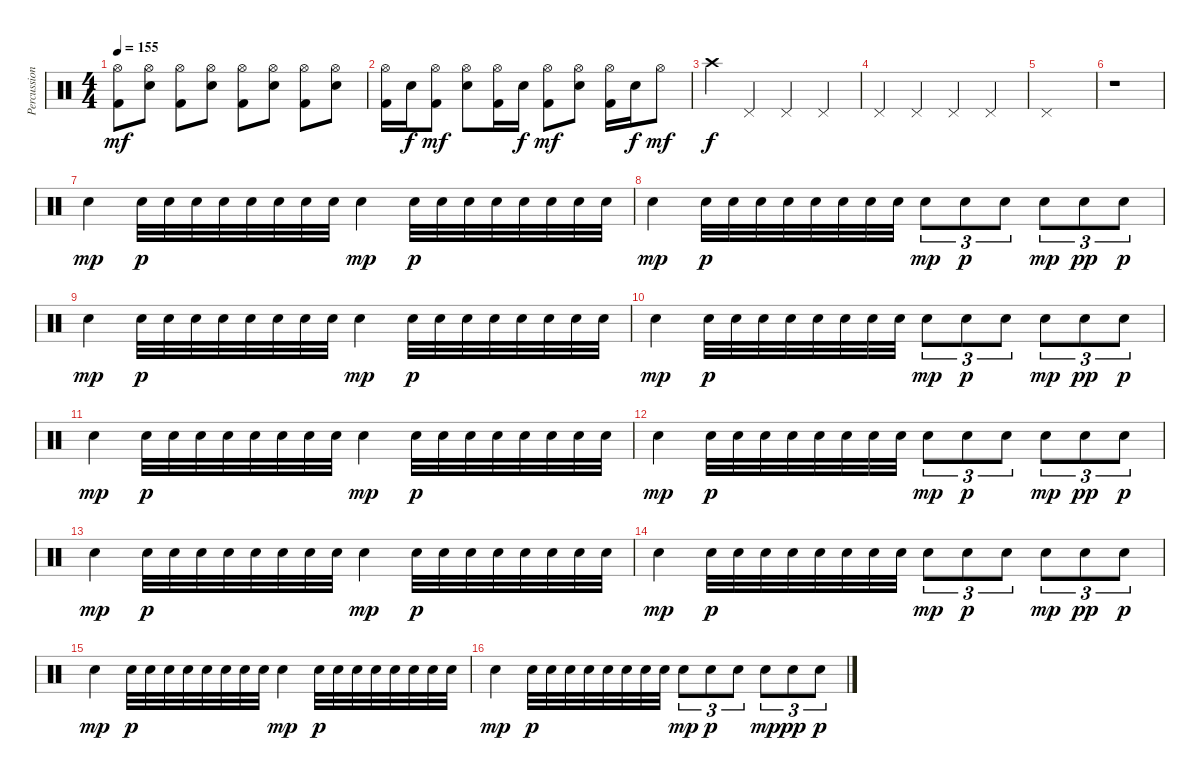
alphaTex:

\track ("Percussion" "Percussion") {instrument percussion}
\staff {score}
\articulation defaults
\ts (4 4)
\tempo 155
\clef neutral
\ks c
("Hi-Hat (open)" "Kick (hit) 2").8{dy mf} ("Hi-Hat (open)" "Electric Snare (hit)").8 ("Hi-Hat (open)" "Kick (hit) 2").8 ("Hi-Hat (open)" "Electric Snare (hit)").8 ("Hi-Hat (open)" "Kick (hit) 2").8 ("Hi-Hat (open)" "Electric Snare (hit)").8 ("Hi-Hat (open)" "Kick (hit) 2").8 ("Hi-Hat (open)" "Electric Snare (hit)").8 |
("Hi-Hat (open)" "Kick (hit) 2").16 "Electric Snare (hit)".16{dy f} ("Hi-Hat (open)" "Kick (hit) 2").8{dy mf} ("Hi-Hat (open)" "Electric Snare (hit)").8 ("Hi-Hat (open)" "Kick (hit) 2").16 "Electric Snare (hit)".16{dy f} ("Hi-Hat (open)" "Kick (hit) 2").8{dy mf} ("Hi-Hat (open)" "Electric Snare (hit)").8 ("Hi-Hat (open)" "Kick (hit) 2").16 "Electric Snare (hit)".16{dy f} "Hi-Hat (open)".8{dy mf} |
"Crash high (hit)".4{dy f} "Pedal Hi-Hat (hit)".4 "Pedal Hi-Hat (hit)".4 "Pedal Hi-Hat (hit)".4 |
"Pedal Hi-Hat (hit)".4 "Pedal Hi-Hat (hit)".4 "Pedal Hi-Hat (hit)".4 "Pedal Hi-Hat (hit)".4 |
"Pedal Hi-Hat (hit)".1 |
r.1 |
"Electric Snare (hit)".4{dy mp} "Electric Snare (hit)".32{dy p} "Electric Snare (hit)".32 "Electric Snare (hit)".32 "Electric Snare (hit)".32 "Electric Snare (hit)".32 "Electric Snare (hit)".32 "Electric Snare (hit)".32 "Electric Snare (hit)".32 "Electric Snare (hit)".4{dy mp} "Electric Snare (hit)".32{dy p} "Electric Snare (hit)".32 "Electric Snare (hit)".32 "Electric Snare (hit)".32 "Electric Snare (hit)".32 "Electric Snare (hit)".32 "Electric Snare (hit)".32 "Electric Snare (hit)".32 |
"Electric Snare (hit)".4{dy mp} "Electric Snare (hit)".32{dy p} "Electric Snare (hit)".32 "Electric Snare (hit)".32 "Electric Snare (hit)".32 "Electric Snare (hit)".32 "Electric Snare (hit)".32 "Electric Snare (hit)".32 "Electric Snare (hit)".32 "Electric Snare (hit)".8{tu (3 2) dy mp} "Electric Snare (hit)".8{tu (3 2) dy p} "Electric Snare (hit)".8{tu (3 2)} "Electric Snare (hit)".8{tu (3 2) dy mp} "Electric Snare (hit)".8{tu (3 2) dy pp} "Electric Snare (hit)".8{tu (3 2) dy p} |
"Electric Snare (hit)".4{dy mp} "Electric Snare (hit)".32{dy p} "Electric Snare (hit)".32 "Electric Snare (hit)".32 "Electric Snare (hit)".32 "Electric Snare (hit)".32 "Electric Snare (hit)".32 "Electric Snare (hit)".32 "Electric Snare (hit)".32 "Electric Snare (hit)".4{dy mp} "Electric Snare (hit)".32{dy p} "Electric Snare (hit)".32 "Electric Snare (hit)".32 "Electric Snare (hit)".32 "Electric Snare (hit)".32 "Electric Snare (hit)".32 "Electric Snare (hit)".32 "Electric Snare (hit)".32 |
"Electric Snare (hit)".4{dy mp} "Electric Snare (hit)".32{dy p} "Electric Snare (hit)".32 "Electric Snare (hit)".32 "Electric Snare (hit)".32 "Electric Snare (hit)".32 "Electric Snare (hit)".32 "Electric Snare (hit)".32 "Electric Snare (hit)".32 "Electric Snare (hit)".8{tu (3 2) dy mp} "Electric Snare (hit)".8{tu (3 2) dy p} "Electric Snare (hit)".8{tu (3 2)} "Electric Snare (hit)".8{tu (3 2) dy mp} "Electric Snare (hit)".8{tu (3 2) dy pp} "Electric Snare (hit)".8{tu (3 2) dy p} |
"Electric Snare (hit)".4{dy mp} "Electric Snare (hit)".32{dy p} "Electric Snare (hit)".32 "Electric Snare (hit)".32 "Electric Snare (hit)".32 "Electric Snare (hit)".32 "Electric Snare (hit)".32 "Electric Snare (hit)".32 "Electric Snare (hit)".32 "Electric Snare (hit)".4{dy mp} "Electric Snare (hit)".32{dy p} "Electric Snare (hit)".32 "Electric Snare (hit)".32 "Electric Snare (hit)".32 "Electric Snare (hit)".32 "Electric Snare (hit)".32 "Electric Snare (hit)".32 "Electric Snare (hit)".32 |
"Electric Snare (hit)".4{dy mp} "Electric Snare (hit)".32{dy p} "Electric Snare (hit)".32 "Electric Snare (hit)".32 "Electric Snare (hit)".32 "Electric Snare (hit)".32 "Electric Snare (hit)".32 "Electric Snare (hit)".32 "Electric Snare (hit)".32 "Electric Snare (hit)".8{tu (3 2) dy mp} "Electric Snare (hit)".8{tu (3 2) dy p} "Electric Snare (hit)".8{tu (3 2)} "Electric Snare (hit)".8{tu (3 2) dy mp} "Electric Snare (hit)".8{tu (3 2) dy pp} "Electric Snare (hit)".8{tu (3 2) dy p} |
"Electric Snare (hit)".4{dy mp} "Electric Snare (hit)".32{dy p} "Electric Snare (hit)".32 "Electric Snare (hit)".32 "Electric Snare (hit)".32 "Electric Snare (hit)".32 "Electric Snare (hit)".32 "Electric Snare (hit)".32 "Electric Snare (hit)".32 "Electric Snare (hit)".4{dy mp} "Electric Snare (hit)".32{dy p} "Electric Snare (hit)".32 "Electric Snare (hit)".32 "Electric Snare (hit)".32 "Electric Snare (hit)".32 "Electric Snare (hit)".32 "Electric Snare (hit)".32 "Electric Snare (hit)".32 |
"Electric Snare (hit)".4{dy mp} "Electric Snare (hit)".32{dy p} "Electric Snare (hit)".32 "Electric Snare (hit)".32 "Electric Snare (hit)".32 "Electric Snare (hit)".32 "Electric Snare (hit)".32 "Electric Snare (hit)".32 "Electric Snare (hit)".32 "Electric Snare (hit)".8{tu (3 2) dy mp} "Electric Snare (hit)".8{tu (3 2) dy p} "Electric Snare (hit)".8{tu (3 2)} "Electric Snare (hit)".8{tu (3 2) dy mp} "Electric Snare (hit)".8{tu (3 2) dy pp} "Electric Snare (hit)".8{tu (3 2) dy p} |
"Electric Snare (hit)".4{dy mp} "Electric Snare (hit)".32{dy p} "Electric Snare (hit)".32 "Electric Snare (hit)".32 "Electric Snare (hit)".32 "Electric Snare (hit)".32 "Electric Snare (hit)".32 "Electric Snare (hit)".32 "Electric Snare (hit)".32 "Electric Snare (hit)".4{dy mp} "Electric Snare (hit)".32{dy p} "Electric Snare (hit)".32 "Electric Snare (hit)".32 "Electric Snare (hit)".32 "Electric Snare (hit)".32 "Electric Snare (hit)".32 "Electric Snare (hit)".32 "Electric Snare (hit)".32 |
"Electric Snare (hit)".4{dy mp} "Electric Snare (hit)".32{dy p} "Electric Snare (hit)".32 "Electric Snare (hit)".32 "Electric Snare (hit)".32 "Electric Snare (hit)".32 "Electric Snare (hit)".32 "Electric Snare (hit)".32 "Electric Snare (hit)".32 "Electric Snare (hit)".8{tu (3 2) dy mp} "Electric Snare (hit)".8{tu (3 2) dy p} "Electric Snare (hit)".8{tu (3 2)} "Electric Snare (hit)".8{tu (3 2) dy mp} "Electric Snare (hit)".8{tu (3 2) dy pp} "Electric Snare (hit)".8{tu (3 2) dy p}
